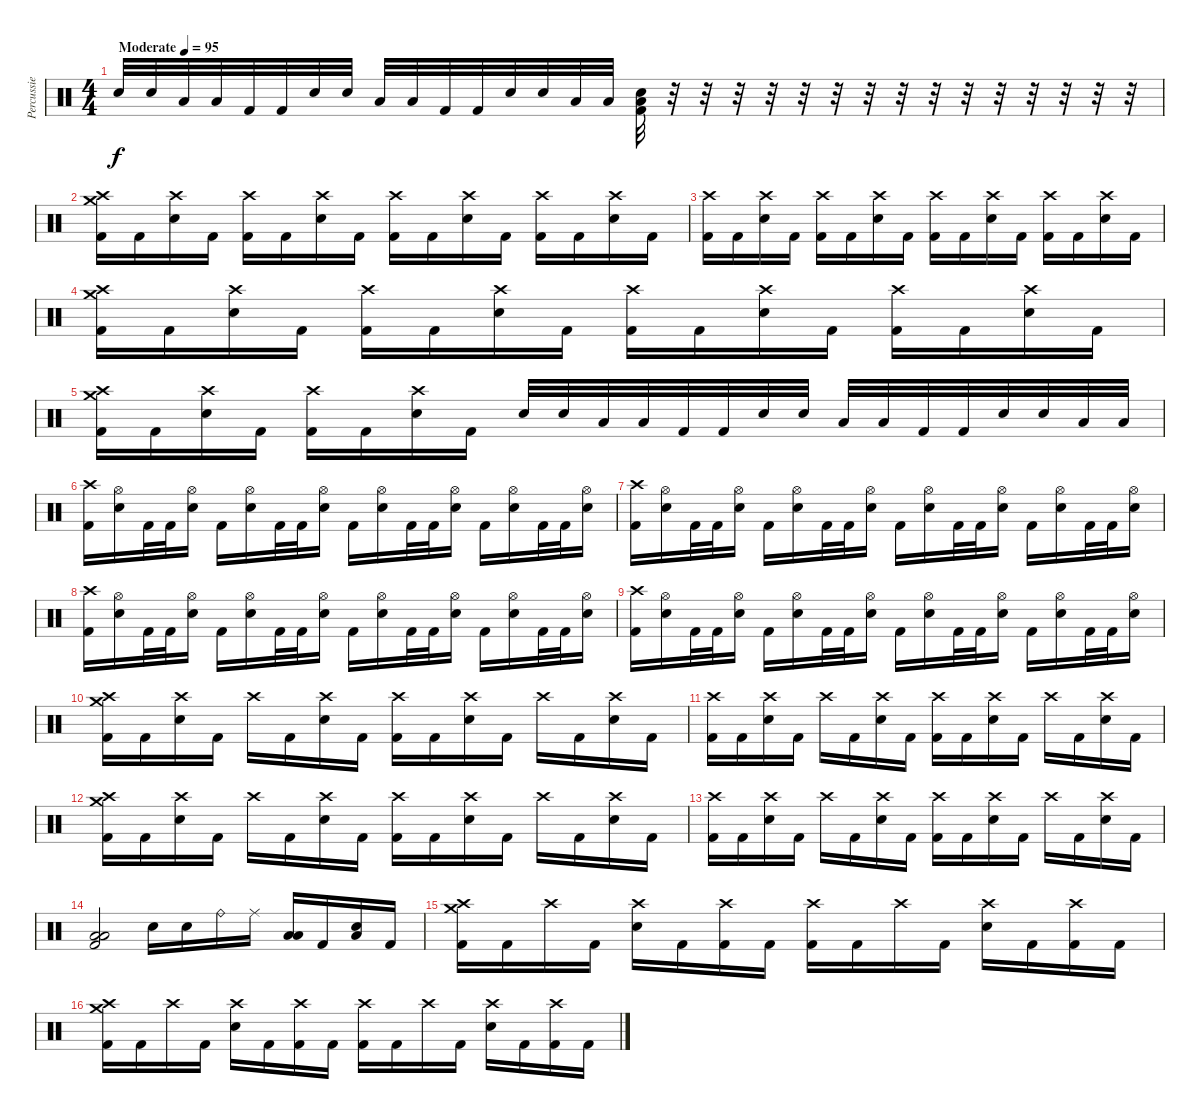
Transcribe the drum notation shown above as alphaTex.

\track ("Percussie" "Percussie") {instrument percussion}
\staff {score}
\articulation defaults
\ts (4 4)
\tempo (95 "Moderate")
\clef neutral
\ks c "Electric Snare (hit)".32{dy f} "Electric Snare (hit)".32 "Low Tom (hit)".32 "Low Tom (hit)".32 "Kick (hit) 2".32 "Kick (hit) 2".32 "Electric Snare (hit)".32 "Electric Snare (hit)".32 "Low Tom (hit)".32 "Low Tom (hit)".32 "Kick (hit) 2".32 "Kick (hit) 2".32 "Electric Snare (hit)".32 "Electric Snare (hit)".32 "Low Tom (hit)".32 "Low Tom (hit)".32
("Low Floor Tom (hit)" "Electric Snare (hit)" "Kick (hit) 2").32 r.32 r.32 r.32 r.32 r.32 r.32 r.32 r.32 r.32 r.32 r.32 r.32 r.32 r.32 r.32 |
("Crash medium (hit)" "Crash high (hit)" "Kick (hit) 2").16 "Kick (hit) 2".16 ("Crash high (hit)" "Electric Snare (hit)").16 "Kick (hit) 2".16 ("Crash high (hit)" "Kick (hit) 2").16 "Kick (hit) 2".16 ("Crash high (hit)" "Electric Snare (hit)").16 "Kick (hit) 2".16 ("Crash high (hit)" "Kick (hit) 2").16 "Kick (hit) 2".16 ("Crash high (hit)" "Electric Snare (hit)").16 "Kick (hit) 2".16 ("Crash high (hit)" "Kick (hit) 2").16 "Kick (hit) 2".16 ("Crash high (hit)" "Electric Snare (hit)").16 "Kick (hit) 2".16 |
("Crash high (hit)" "Kick (hit) 2").16 "Kick (hit) 2".16 ("Crash high (hit)" "Electric Snare (hit)").16 "Kick (hit) 2".16 ("Crash high (hit)" "Kick (hit) 2").16 "Kick (hit) 2".16 ("Crash high (hit)" "Electric Snare (hit)").16 "Kick (hit) 2".16 ("Crash high (hit)" "Kick (hit) 2").16 "Kick (hit) 2".16 ("Crash high (hit)" "Electric Snare (hit)").16 "Kick (hit) 2".16 ("Crash high (hit)" "Kick (hit) 2").16 "Kick (hit) 2".16 ("Crash high (hit)" "Electric Snare (hit)").16 "Kick (hit) 2".16 |
("Crash medium (hit)" "Crash high (hit)" "Kick (hit) 2").16 "Kick (hit) 2".16 ("Crash high (hit)" "Electric Snare (hit)").16 "Kick (hit) 2".16 ("Crash high (hit)" "Kick (hit) 2").16 "Kick (hit) 2".16 ("Crash high (hit)" "Electric Snare (hit)").16 "Kick (hit) 2".16 ("Crash high (hit)" "Kick (hit) 2").16 "Kick (hit) 2".16 ("Crash high (hit)" "Electric Snare (hit)").16 "Kick (hit) 2".16 ("Crash high (hit)" "Kick (hit) 2").16 "Kick (hit) 2".16 ("Crash high (hit)" "Electric Snare (hit)").16 "Kick (hit) 2".16 |
("Crash medium (hit)" "Crash high (hit)" "Kick (hit) 2").16 "Kick (hit) 2".16 ("Crash high (hit)" "Electric Snare (hit)").16 "Kick (hit) 2".16 ("Crash high (hit)" "Kick (hit) 2").16 "Kick (hit) 2".16 ("Crash high (hit)" "Electric Snare (hit)").16 "Kick (hit) 2".16 "Electric Snare (hit)".32 "Electric Snare (hit)".32 "Low Tom (hit)".32 "Low Tom (hit)".32 "Kick (hit) 2".32 "Kick (hit) 2".32 "Electric Snare (hit)".32 "Electric Snare (hit)".32 "Low Tom (hit)".32 "Low Tom (hit)".32 "Kick (hit) 2".32 "Kick (hit) 2".32 "Electric Snare (hit)".32 "Electric Snare (hit)".32 "Low Tom (hit)".32 "Low Tom (hit)".32 |
("Crash high (hit)" "Kick (hit) 2").16 ("Hi-Hat (open)" "Electric Snare (hit)").16 "Kick (hit) 2".32 "Kick (hit) 2".32 ("Hi-Hat (open)" "Electric Snare (hit)").16 "Kick (hit) 2".16 ("Hi-Hat (open)" "Electric Snare (hit)").16 "Kick (hit) 2".32 "Kick (hit) 2".32 ("Hi-Hat (open)" "Electric Snare (hit)").16 "Kick (hit) 2".16 ("Hi-Hat (open)" "Electric Snare (hit)").16 "Kick (hit) 2".32 "Kick (hit) 2".32 ("Hi-Hat (open)" "Electric Snare (hit)").16 "Kick (hit) 2".16 ("Hi-Hat (open)" "Electric Snare (hit)").16 "Kick (hit) 2".32 "Kick (hit) 2".32 ("Hi-Hat (open)" "Electric Snare (hit)").16 |
("Crash high (hit)" "Kick (hit) 2").16 ("Hi-Hat (open)" "Electric Snare (hit)").16 "Kick (hit) 2".32 "Kick (hit) 2".32 ("Hi-Hat (open)" "Electric Snare (hit)").16 "Kick (hit) 2".16 ("Hi-Hat (open)" "Electric Snare (hit)").16 "Kick (hit) 2".32 "Kick (hit) 2".32 ("Hi-Hat (open)" "Electric Snare (hit)").16 "Kick (hit) 2".16 ("Hi-Hat (open)" "Electric Snare (hit)").16 "Kick (hit) 2".32 "Kick (hit) 2".32 ("Hi-Hat (open)" "Electric Snare (hit)").16 "Kick (hit) 2".16 ("Hi-Hat (open)" "Electric Snare (hit)").16 "Kick (hit) 2".32 "Kick (hit) 2".32 ("Hi-Hat (open)" "Electric Snare (hit)").16 |
("Crash high (hit)" "Kick (hit) 2").16 ("Hi-Hat (open)" "Electric Snare (hit)").16 "Kick (hit) 2".32 "Kick (hit) 2".32 ("Hi-Hat (open)" "Electric Snare (hit)").16 "Kick (hit) 2".16 ("Hi-Hat (open)" "Electric Snare (hit)").16 "Kick (hit) 2".32 "Kick (hit) 2".32 ("Hi-Hat (open)" "Electric Snare (hit)").16 "Kick (hit) 2".16 ("Hi-Hat (open)" "Electric Snare (hit)").16 "Kick (hit) 2".32 "Kick (hit) 2".32 ("Hi-Hat (open)" "Electric Snare (hit)").16 "Kick (hit) 2".16 ("Hi-Hat (open)" "Electric Snare (hit)").16 "Kick (hit) 2".32 "Kick (hit) 2".32 ("Hi-Hat (open)" "Electric Snare (hit)").16 |
("Crash high (hit)" "Kick (hit) 2").16 ("Hi-Hat (open)" "Electric Snare (hit)").16 "Kick (hit) 2".32 "Kick (hit) 2".32 ("Hi-Hat (open)" "Electric Snare (hit)").16 "Kick (hit) 2".16 ("Hi-Hat (open)" "Electric Snare (hit)").16 "Kick (hit) 2".32 "Kick (hit) 2".32 ("Hi-Hat (open)" "Electric Snare (hit)").16 "Kick (hit) 2".16 ("Hi-Hat (open)" "Electric Snare (hit)").16 "Kick (hit) 2".32 "Kick (hit) 2".32 ("Hi-Hat (open)" "Electric Snare (hit)").16 "Kick (hit) 2".16 ("Hi-Hat (open)" "Electric Snare (hit)").16 "Kick (hit) 2".32 "Kick (hit) 2".32 ("Hi-Hat (open)" "Electric Snare (hit)").16 |
("Crash medium (hit)" "Crash high (hit)" "Kick (hit) 2").16 "Kick (hit) 2".16 ("Crash high (hit)" "Electric Snare (hit)").16 "Kick (hit) 2".16 "Crash high (hit)".16 "Kick (hit) 2".16 ("Crash high (hit)" "Electric Snare (hit)").16 "Kick (hit) 2".16 ("Crash high (hit)" "Kick (hit) 2").16 "Kick (hit) 2".16 ("Crash high (hit)" "Electric Snare (hit)").16 "Kick (hit) 2".16 "Crash high (hit)".16 "Kick (hit) 2".16 ("Crash high (hit)" "Electric Snare (hit)").16 "Kick (hit) 2".16 |
("Crash high (hit)" "Kick (hit) 2").16 "Kick (hit) 2".16 ("Crash high (hit)" "Electric Snare (hit)").16 "Kick (hit) 2".16 "Crash high (hit)".16 "Kick (hit) 2".16 ("Crash high (hit)" "Electric Snare (hit)").16 "Kick (hit) 2".16 ("Crash high (hit)" "Kick (hit) 2").16 "Kick (hit) 2".16 ("Crash high (hit)" "Electric Snare (hit)").16 "Kick (hit) 2".16 "Crash high (hit)".16 "Kick (hit) 2".16 ("Crash high (hit)" "Electric Snare (hit)").16 "Kick (hit) 2".16 |
("Crash medium (hit)" "Crash high (hit)" "Kick (hit) 2").16 "Kick (hit) 2".16 ("Crash high (hit)" "Electric Snare (hit)").16 "Kick (hit) 2".16 "Crash high (hit)".16 "Kick (hit) 2".16 ("Crash high (hit)" "Electric Snare (hit)").16 "Kick (hit) 2".16 ("Crash high (hit)" "Kick (hit) 2").16 "Kick (hit) 2".16 ("Crash high (hit)" "Electric Snare (hit)").16 "Kick (hit) 2".16 "Crash high (hit)".16 "Kick (hit) 2".16 ("Crash high (hit)" "Electric Snare (hit)").16 "Kick (hit) 2".16 |
("Crash high (hit)" "Kick (hit) 2").16 "Kick (hit) 2".16 ("Crash high (hit)" "Electric Snare (hit)").16 "Kick (hit) 2".16 "Crash high (hit)".16 "Kick (hit) 2".16 ("Crash high (hit)" "Electric Snare (hit)").16 "Kick (hit) 2".16 ("Crash high (hit)" "Kick (hit) 2").16 "Kick (hit) 2".16 ("Crash high (hit)" "Electric Snare (hit)").16 "Kick (hit) 2".16 "Crash high (hit)".16 "Kick (hit) 2".16 ("Crash high (hit)" "Electric Snare (hit)").16 "Kick (hit) 2".16 |
("Low Tom (hit)" "Low Floor Tom (hit)" "Kick (hit) 2").2 "Electric Snare (hit)".16 "Electric Snare (hit)".16 "Ride (bell)".16 "Ride (middle)".16 ("Low Tom (hit)" "Low Floor Tom (hit)").16 "Kick (hit) 2".16 ("Low Floor Tom (hit)" "Electric Snare (hit)").16 "Kick (hit) 2".16 |
("Crash medium (hit)" "Crash high (hit)" "Kick (hit) 2").16 "Kick (hit) 2".16 "Crash high (hit)".16 "Kick (hit) 2".16 ("Crash high (hit)" "Electric Snare (hit)").16 "Kick (hit) 2".16 ("Crash high (hit)" "Kick (hit) 2").16 "Kick (hit) 2".16 ("Crash high (hit)" "Kick (hit) 2").16 "Kick (hit) 2".16 "Crash high (hit)".16 "Kick (hit) 2".16 ("Crash high (hit)" "Electric Snare (hit)").16 "Kick (hit) 2".16 ("Crash high (hit)" "Kick (hit) 2").16 "Kick (hit) 2".16 |
("Crash medium (hit)" "Crash high (hit)" "Kick (hit) 2").16 "Kick (hit) 2".16 "Crash high (hit)".16 "Kick (hit) 2".16 ("Crash high (hit)" "Electric Snare (hit)").16 "Kick (hit) 2".16 ("Crash high (hit)" "Kick (hit) 2").16 "Kick (hit) 2".16 ("Crash high (hit)" "Kick (hit) 2").16 "Kick (hit) 2".16 "Crash high (hit)".16 "Kick (hit) 2".16 ("Crash high (hit)" "Electric Snare (hit)").16 "Kick (hit) 2".16 ("Crash high (hit)" "Kick (hit) 2").16 "Kick (hit) 2".16
